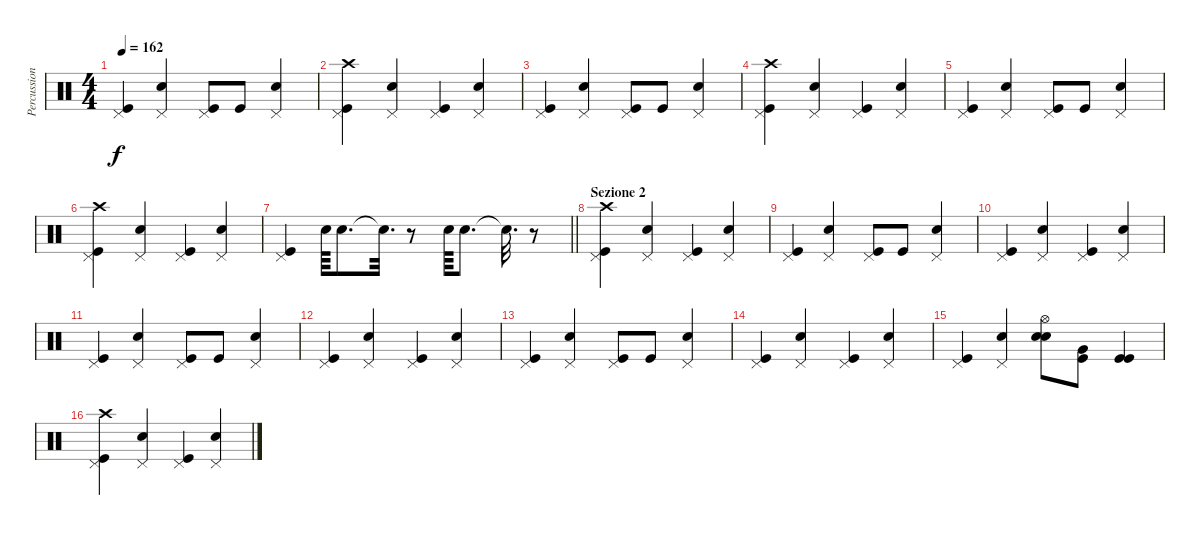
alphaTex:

\track ("Percussioni" "Percussion") {instrument percussion}
\staff {score}
\articulation defaults
\ts (4 4)
\tempo 162
\clef neutral
\ks c
("Pedal Hi-Hat (hit)" "Kick (hit)").4{dy f} ("Pedal Hi-Hat (hit)" "Snare (hit) 2").4 ("Pedal Hi-Hat (hit)" "Kick (hit)").8 "Kick (hit)".8 ("Pedal Hi-Hat (hit)" "Snare (hit) 2").4 |
("Pedal Hi-Hat (hit)" "Kick (hit)" "Crash high (hit)").4 ("Pedal Hi-Hat (hit)" "Snare (hit) 2").4 ("Pedal Hi-Hat (hit)" "Kick (hit)").4 ("Pedal Hi-Hat (hit)" "Snare (hit) 2").4 |
("Pedal Hi-Hat (hit)" "Kick (hit)").4 ("Pedal Hi-Hat (hit)" "Snare (hit) 2").4 ("Pedal Hi-Hat (hit)" "Kick (hit)").8 "Kick (hit)".8 ("Pedal Hi-Hat (hit)" "Snare (hit) 2").4 |
("Pedal Hi-Hat (hit)" "Kick (hit)" "Crash high (hit)").4 ("Pedal Hi-Hat (hit)" "Snare (hit) 2").4 ("Pedal Hi-Hat (hit)" "Kick (hit)").4 ("Pedal Hi-Hat (hit)" "Snare (hit) 2").4 |
("Pedal Hi-Hat (hit)" "Kick (hit)").4 ("Pedal Hi-Hat (hit)" "Snare (hit) 2").4 ("Pedal Hi-Hat (hit)" "Kick (hit)").8 "Kick (hit)".8 ("Pedal Hi-Hat (hit)" "Snare (hit) 2").4 |
("Pedal Hi-Hat (hit)" "Kick (hit)" "Crash high (hit)").4 ("Pedal Hi-Hat (hit)" "Snare (hit) 2").4 ("Pedal Hi-Hat (hit)" "Kick (hit)").4 ("Pedal Hi-Hat (hit)" "Snare (hit) 2").4 |
\barLineRight lightlight
("Pedal Hi-Hat (hit)" "Kick (hit)").4 "Snare (hit) 2".64 "Snare (hit) 2".8{d} "Snare (hit)"{t}.32{d} r.8 "Snare (hit) 2".64 "Snare (hit) 2".8{d} "Snare (hit)"{t}.32{d} r.8 |
\section ("" "Sezione 2")
("Pedal Hi-Hat (hit)" "Kick (hit)" "Crash high (hit)").4 ("Pedal Hi-Hat (hit)" "Snare (hit) 2").4 ("Pedal Hi-Hat (hit)" "Kick (hit)").4 ("Pedal Hi-Hat (hit)" "Snare (hit) 2").4 |
("Pedal Hi-Hat (hit)" "Kick (hit)").4 ("Pedal Hi-Hat (hit)" "Snare (hit) 2").4 ("Pedal Hi-Hat (hit)" "Kick (hit)").8 "Kick (hit)".8 ("Pedal Hi-Hat (hit)" "Snare (hit) 2").4 |
("Pedal Hi-Hat (hit)" "Kick (hit)").4 ("Pedal Hi-Hat (hit)" "Snare (hit) 2").4 ("Pedal Hi-Hat (hit)" "Kick (hit)").4 ("Pedal Hi-Hat (hit)" "Snare (hit) 2").4 |
("Pedal Hi-Hat (hit)" "Kick (hit)").4 ("Pedal Hi-Hat (hit)" "Snare (hit) 2").4 ("Pedal Hi-Hat (hit)" "Kick (hit)").8 "Kick (hit)".8 ("Pedal Hi-Hat (hit)" "Snare (hit) 2").4 |
("Pedal Hi-Hat (hit)" "Kick (hit)").4 ("Pedal Hi-Hat (hit)" "Snare (hit) 2").4 ("Pedal Hi-Hat (hit)" "Kick (hit)").4 ("Pedal Hi-Hat (hit)" "Snare (hit) 2").4 |
("Pedal Hi-Hat (hit)" "Kick (hit)").4 ("Pedal Hi-Hat (hit)" "Snare (hit) 2").4 ("Pedal Hi-Hat (hit)" "Kick (hit)").8 "Kick (hit)".8 ("Pedal Hi-Hat (hit)" "Snare (hit) 2").4 |
("Pedal Hi-Hat (hit)" "Kick (hit)").4 ("Pedal Hi-Hat (hit)" "Snare (hit) 2").4 ("Pedal Hi-Hat (hit)" "Kick (hit)").4 ("Pedal Hi-Hat (hit)" "Snare (hit) 2").4 |
("Pedal Hi-Hat (hit)" "Kick (hit)").4 ("Pedal Hi-Hat (hit)" "Snare (hit) 2").4 ("Snare (hit) 2" "Snare (hit) 2" "Hi-Hat (open)").8 ("Very Low Tom (hit)" "Kick (hit)").8 ("Kick (hit)" "Kick (hit)").4 |
("Pedal Hi-Hat (hit)" "Kick (hit)" "Crash high (hit)").4 ("Pedal Hi-Hat (hit)" "Snare (hit) 2").4 ("Pedal Hi-Hat (hit)" "Kick (hit)").4 ("Pedal Hi-Hat (hit)" "Snare (hit) 2").4
